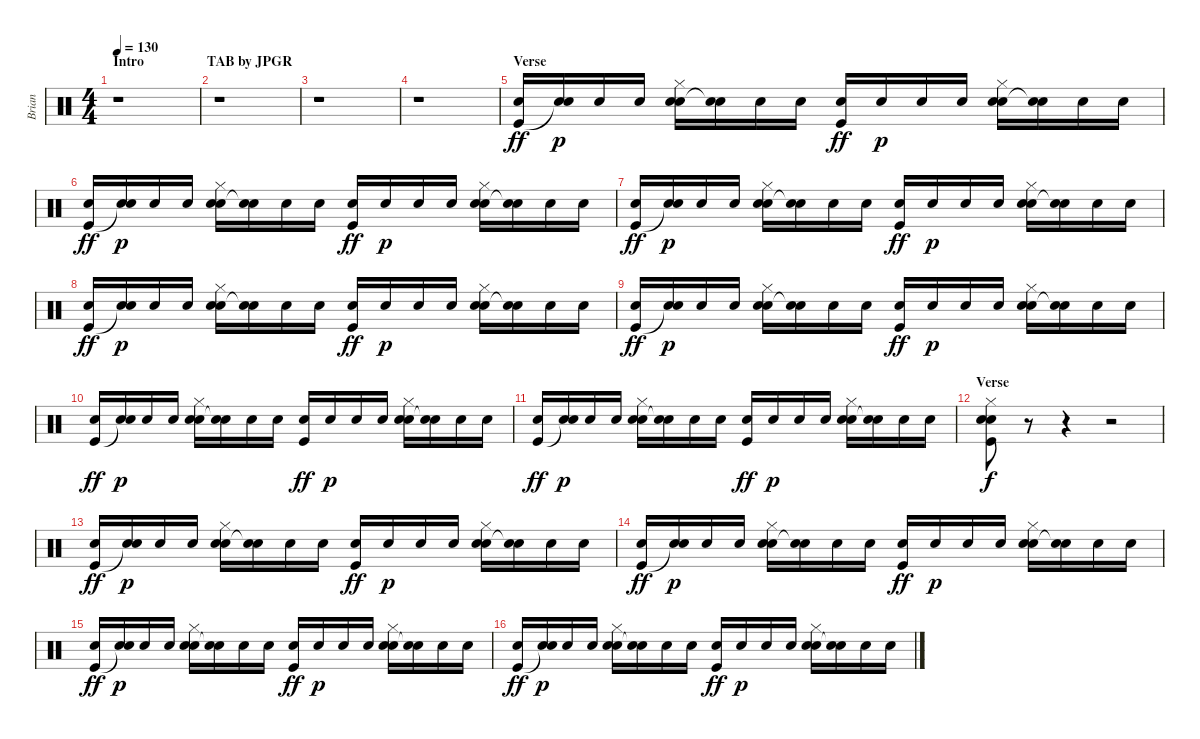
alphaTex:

\track ("Brian" "Brian") {instrument percussion}
\staff {score}
\articulation defaults
\ts (4 4)
\section ("" "Intro                  TAB by JPGR")
\tempo 130
\clef neutral
\ks c
r.1{dy ff} |
r.1 |
r.1 |
r.1 |
\section ("" "Verse")
("Snare (hit) 2" "Kick (hit)").16 ("Snare (hit) 2" "Snare (hit)"{t}).16{dy p} "Snare (hit) 2".16 "Snare (hit) 2".16 ("Snare (hit) 2" "Hi-Hat (closed)" "Snare (hit) 2").16 ("Snare (hit)"{t} "Snare (hit) 2").16 "Snare (hit) 2".16 "Snare (hit) 2".16 ("Snare (hit) 2" "Kick (hit)").16{dy ff} "Snare (hit) 2".16{dy p} "Snare (hit) 2".16 "Snare (hit) 2".16 ("Snare (hit) 2" "Hi-Hat (closed)" "Snare (hit) 2").16 ("Snare (hit)"{t} "Snare (hit) 2").16 "Snare (hit) 2".16 "Snare (hit) 2".16 |
("Snare (hit) 2" "Kick (hit)").16{dy ff} ("Snare (hit) 2" "Snare (hit)"{t}).16{dy p} "Snare (hit) 2".16 "Snare (hit) 2".16 ("Snare (hit) 2" "Hi-Hat (closed)" "Snare (hit) 2").16 ("Snare (hit)"{t} "Snare (hit) 2").16 "Snare (hit) 2".16 "Snare (hit) 2".16 ("Snare (hit) 2" "Kick (hit)").16{dy ff} "Snare (hit) 2".16{dy p} "Snare (hit) 2".16 "Snare (hit) 2".16 ("Snare (hit) 2" "Hi-Hat (closed)" "Snare (hit) 2").16 ("Snare (hit)"{t} "Snare (hit) 2").16 "Snare (hit) 2".16 "Snare (hit) 2".16 |
("Snare (hit) 2" "Kick (hit)").16{dy ff} ("Snare (hit) 2" "Snare (hit)"{t}).16{dy p} "Snare (hit) 2".16 "Snare (hit) 2".16 ("Snare (hit) 2" "Hi-Hat (closed)" "Snare (hit) 2").16 ("Snare (hit)"{t} "Snare (hit) 2").16 "Snare (hit) 2".16 "Snare (hit) 2".16 ("Snare (hit) 2" "Kick (hit)").16{dy ff} "Snare (hit) 2".16{dy p} "Snare (hit) 2".16 "Snare (hit) 2".16 ("Snare (hit) 2" "Hi-Hat (closed)" "Snare (hit) 2").16 ("Snare (hit)"{t} "Snare (hit) 2").16 "Snare (hit) 2".16 "Snare (hit) 2".16 |
("Snare (hit) 2" "Kick (hit)").16{dy ff} ("Snare (hit) 2" "Snare (hit)"{t}).16{dy p} "Snare (hit) 2".16 "Snare (hit) 2".16 ("Snare (hit) 2" "Hi-Hat (closed)" "Snare (hit) 2").16 ("Snare (hit)"{t} "Snare (hit) 2").16 "Snare (hit) 2".16 "Snare (hit) 2".16 ("Snare (hit) 2" "Kick (hit)").16{dy ff} "Snare (hit) 2".16{dy p} "Snare (hit) 2".16 "Snare (hit) 2".16 ("Snare (hit) 2" "Hi-Hat (closed)" "Snare (hit) 2").16 ("Snare (hit)"{t} "Snare (hit) 2").16 "Snare (hit) 2".16 "Snare (hit) 2".16 |
("Snare (hit) 2" "Kick (hit)").16{dy ff} ("Snare (hit) 2" "Snare (hit)"{t}).16{dy p} "Snare (hit) 2".16 "Snare (hit) 2".16 ("Snare (hit) 2" "Hi-Hat (closed)" "Snare (hit) 2").16 ("Snare (hit)"{t} "Snare (hit) 2").16 "Snare (hit) 2".16 "Snare (hit) 2".16 ("Snare (hit) 2" "Kick (hit)").16{dy ff} "Snare (hit) 2".16{dy p} "Snare (hit) 2".16 "Snare (hit) 2".16 ("Snare (hit) 2" "Hi-Hat (closed)" "Snare (hit) 2").16 ("Snare (hit)"{t} "Snare (hit) 2").16 "Snare (hit) 2".16 "Snare (hit) 2".16 |
("Snare (hit) 2" "Kick (hit)").16{dy ff} ("Snare (hit) 2" "Snare (hit)"{t}).16{dy p} "Snare (hit) 2".16 "Snare (hit) 2".16 ("Snare (hit) 2" "Hi-Hat (closed)" "Snare (hit) 2").16 ("Snare (hit)"{t} "Snare (hit) 2").16 "Snare (hit) 2".16 "Snare (hit) 2".16 ("Snare (hit) 2" "Kick (hit)").16{dy ff} "Snare (hit) 2".16{dy p} "Snare (hit) 2".16 "Snare (hit) 2".16 ("Snare (hit) 2" "Hi-Hat (closed)" "Snare (hit) 2").16 ("Snare (hit)"{t} "Snare (hit) 2").16 "Snare (hit) 2".16 "Snare (hit) 2".16 |
("Snare (hit) 2" "Kick (hit)").16{dy ff} ("Snare (hit) 2" "Snare (hit)"{t}).16{dy p} "Snare (hit) 2".16 "Snare (hit) 2".16 ("Snare (hit) 2" "Hi-Hat (closed)" "Snare (hit) 2").16 ("Snare (hit)"{t} "Snare (hit) 2").16 "Snare (hit) 2".16 "Snare (hit) 2".16 ("Snare (hit) 2" "Kick (hit)").16{dy ff} "Snare (hit) 2".16{dy p} "Snare (hit) 2".16 "Snare (hit) 2".16 ("Snare (hit) 2" "Hi-Hat (closed)" "Snare (hit) 2").16 ("Snare (hit)"{t} "Snare (hit) 2").16 "Snare (hit) 2".16 "Snare (hit) 2".16 |
\section ("" "Verse")
("Snare (hit) 2" "Hi-Hat (closed)" "Snare (hit) 2" "Kick (hit)").8{dy f} r.8 r.4 r.2 |
("Snare (hit) 2" "Kick (hit)").16{dy ff} ("Snare (hit) 2" "Snare (hit)"{t}).16{dy p} "Snare (hit) 2".16 "Snare (hit) 2".16 ("Snare (hit) 2" "Hi-Hat (closed)" "Snare (hit) 2").16 ("Snare (hit)"{t} "Snare (hit) 2").16 "Snare (hit) 2".16 "Snare (hit) 2".16 ("Snare (hit) 2" "Kick (hit)").16{dy ff} "Snare (hit) 2".16{dy p} "Snare (hit) 2".16 "Snare (hit) 2".16 ("Snare (hit) 2" "Hi-Hat (closed)" "Snare (hit) 2").16 ("Snare (hit)"{t} "Snare (hit) 2").16 "Snare (hit) 2".16 "Snare (hit) 2".16 |
("Snare (hit) 2" "Kick (hit)").16{dy ff} ("Snare (hit) 2" "Snare (hit)"{t}).16{dy p} "Snare (hit) 2".16 "Snare (hit) 2".16 ("Snare (hit) 2" "Hi-Hat (closed)" "Snare (hit) 2").16 ("Snare (hit)"{t} "Snare (hit) 2").16 "Snare (hit) 2".16 "Snare (hit) 2".16 ("Snare (hit) 2" "Kick (hit)").16{dy ff} "Snare (hit) 2".16{dy p} "Snare (hit) 2".16 "Snare (hit) 2".16 ("Snare (hit) 2" "Hi-Hat (closed)" "Snare (hit) 2").16 ("Snare (hit)"{t} "Snare (hit) 2").16 "Snare (hit) 2".16 "Snare (hit) 2".16 |
("Snare (hit) 2" "Kick (hit)").16{dy ff} ("Snare (hit) 2" "Snare (hit)"{t}).16{dy p} "Snare (hit) 2".16 "Snare (hit) 2".16 ("Snare (hit) 2" "Hi-Hat (closed)" "Snare (hit) 2").16 ("Snare (hit)"{t} "Snare (hit) 2").16 "Snare (hit) 2".16 "Snare (hit) 2".16 ("Snare (hit) 2" "Kick (hit)").16{dy ff} "Snare (hit) 2".16{dy p} "Snare (hit) 2".16 "Snare (hit) 2".16 ("Snare (hit) 2" "Hi-Hat (closed)" "Snare (hit) 2").16 ("Snare (hit)"{t} "Snare (hit) 2").16 "Snare (hit) 2".16 "Snare (hit) 2".16 |
("Snare (hit) 2" "Kick (hit)").16{dy ff} ("Snare (hit) 2" "Snare (hit)"{t}).16{dy p} "Snare (hit) 2".16 "Snare (hit) 2".16 ("Snare (hit) 2" "Hi-Hat (closed)" "Snare (hit) 2").16 ("Snare (hit)"{t} "Snare (hit) 2").16 "Snare (hit) 2".16 "Snare (hit) 2".16 ("Snare (hit) 2" "Kick (hit)").16{dy ff} "Snare (hit) 2".16{dy p} "Snare (hit) 2".16 "Snare (hit) 2".16 ("Snare (hit) 2" "Hi-Hat (closed)" "Snare (hit) 2").16 ("Snare (hit)"{t} "Snare (hit) 2").16 "Snare (hit) 2".16 "Snare (hit) 2".16
